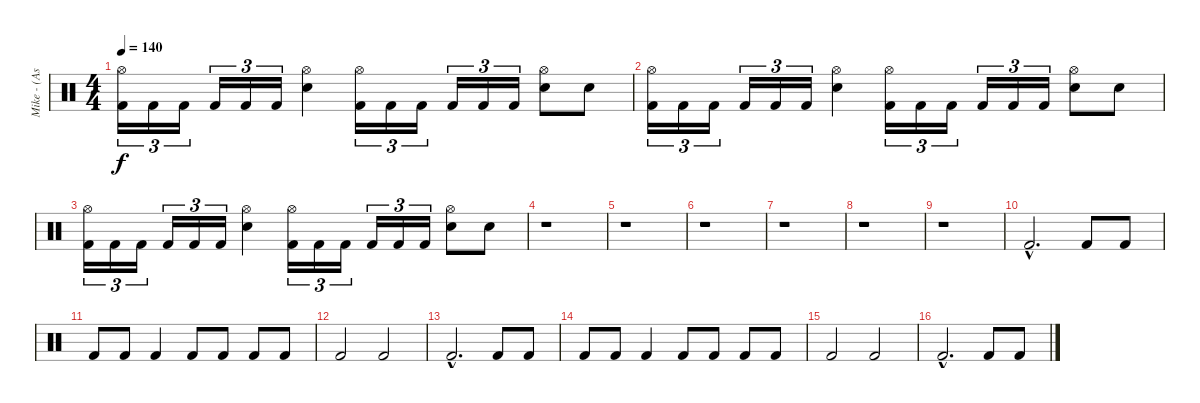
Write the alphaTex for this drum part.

\track ("Mike - (Assault and Battery)" "Mike - (As") {instrument percussion}
\staff {score}
\articulation defaults
\ts (4 4)
\tempo 140
\clef neutral
\ks c
("Hi-Hat (open)" "Kick (hit) 2").16{tu (3 2) dy f} "Kick (hit) 2".16{tu (3 2)} "Kick (hit) 2".16{tu (3 2)} "Kick (hit) 2".16{tu (3 2)} "Kick (hit) 2".16{tu (3 2)} "Kick (hit) 2".16{tu (3 2)} ("Snare (hit) 2" "Hi-Hat (open)").4 ("Hi-Hat (open)" "Kick (hit) 2").16{tu (3 2)} "Kick (hit) 2".16{tu (3 2)} "Kick (hit) 2".16{tu (3 2)} "Kick (hit) 2".16{tu (3 2)} "Kick (hit) 2".16{tu (3 2)} "Kick (hit) 2".16{tu (3 2)} ("Snare (hit) 2" "Hi-Hat (open)").8 "Snare (hit) 2".8 |
("Hi-Hat (open)" "Kick (hit) 2").16{tu (3 2)} "Kick (hit) 2".16{tu (3 2)} "Kick (hit) 2".16{tu (3 2)} "Kick (hit) 2".16{tu (3 2)} "Kick (hit) 2".16{tu (3 2)} "Kick (hit) 2".16{tu (3 2)} ("Snare (hit) 2" "Hi-Hat (open)").4 ("Hi-Hat (open)" "Kick (hit) 2").16{tu (3 2)} "Kick (hit) 2".16{tu (3 2)} "Kick (hit) 2".16{tu (3 2)} "Kick (hit) 2".16{tu (3 2)} "Kick (hit) 2".16{tu (3 2)} "Kick (hit) 2".16{tu (3 2)} ("Snare (hit) 2" "Hi-Hat (open)").8 "Snare (hit) 2".8 |
("Hi-Hat (open)" "Kick (hit) 2").16{tu (3 2)} "Kick (hit) 2".16{tu (3 2)} "Kick (hit) 2".16{tu (3 2)} "Kick (hit) 2".16{tu (3 2)} "Kick (hit) 2".16{tu (3 2)} "Kick (hit) 2".16{tu (3 2)} ("Snare (hit) 2" "Hi-Hat (open)").4 ("Hi-Hat (open)" "Kick (hit) 2").16{tu (3 2)} "Kick (hit) 2".16{tu (3 2)} "Kick (hit) 2".16{tu (3 2)} "Kick (hit) 2".16{tu (3 2)} "Kick (hit) 2".16{tu (3 2)} "Kick (hit) 2".16{tu (3 2)} ("Snare (hit) 2" "Hi-Hat (open)").8 "Snare (hit) 2".8 |
r.1 |
r.1 |
r.1 |
r.1 |
r.1 |
r.1 |
"Kick (hit) 2"{hac}.2{d} "Kick (hit) 2".8 "Kick (hit) 2".8 |
"Kick (hit) 2".8 "Kick (hit) 2".8 "Kick (hit) 2".4 "Kick (hit) 2".8 "Kick (hit) 2".8 "Kick (hit) 2".8 "Kick (hit) 2".8 |
"Kick (hit) 2".2 "Kick (hit) 2".2 |
"Kick (hit) 2"{hac}.2{d} "Kick (hit) 2".8 "Kick (hit) 2".8 |
"Kick (hit) 2".8 "Kick (hit) 2".8 "Kick (hit) 2".4 "Kick (hit) 2".8 "Kick (hit) 2".8 "Kick (hit) 2".8 "Kick (hit) 2".8 |
"Kick (hit) 2".2 "Kick (hit) 2".2 |
"Kick (hit) 2"{hac}.2{d} "Kick (hit) 2".8 "Kick (hit) 2".8
